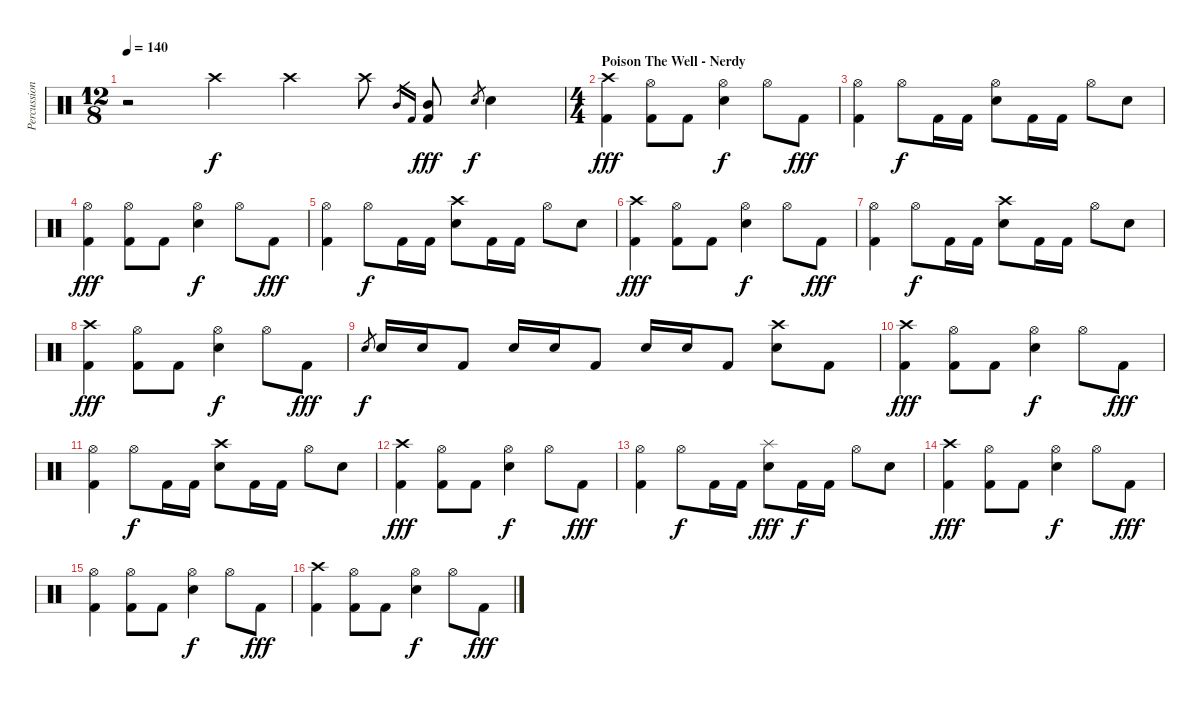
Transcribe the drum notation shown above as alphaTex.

\track ("Percussion" "Percussion") {instrument percussion}
\staff {score}
\articulation defaults
\ts (12 8)
\tempo 140
\clef neutral
\ks c
r.2{dy f} "Crash high (hit)".4 "Crash high (hit)".4 "Crash high (hit)".8 "Mid Tom (hit)".16{gr} "Kick (hit) 2".16{gr} ("Mid Tom (hit)" "Kick (hit) 2").8{dy fff} "Electric Snare (hit)".8{gr dy f} "Electric Snare (hit)".4 |
\ts (4 4)
\section ("" "Poison The Well - Nerdy")
("Crash high (hit)" "Kick (hit) 2").4{dy fff} ("Hi-Hat (open)" "Kick (hit) 2").8 "Kick (hit) 2".8 ("Hi-Hat (open)" "Electric Snare (hit)").4{dy f} "Hi-Hat (open)".8 "Kick (hit) 2".8{dy fff} |
("Hi-Hat (open)" "Kick (hit) 2").4 "Hi-Hat (open)".8{dy f} "Kick (hit) 2".16 "Kick (hit) 2".16 ("Hi-Hat (open)" "Electric Snare (hit)").8 "Kick (hit) 2".16 "Kick (hit) 2".16 "Hi-Hat (open)".8 "Electric Snare (hit)".8 |
("Hi-Hat (open)" "Kick (hit) 2").4{dy fff} ("Hi-Hat (open)" "Kick (hit) 2").8 "Kick (hit) 2".8 ("Hi-Hat (open)" "Electric Snare (hit)").4{dy f} "Hi-Hat (open)".8 "Kick (hit) 2".8{dy fff} |
("Hi-Hat (open)" "Kick (hit) 2").4 "Hi-Hat (open)".8{dy f} "Kick (hit) 2".16 "Kick (hit) 2".16 ("Crash high (hit)" "Electric Snare (hit)").8 "Kick (hit) 2".16 "Kick (hit) 2".16 "Hi-Hat (open)".8 "Electric Snare (hit)".8 |
("Crash high (hit)" "Kick (hit) 2").4{dy fff} ("Hi-Hat (open)" "Kick (hit) 2").8 "Kick (hit) 2".8 ("Hi-Hat (open)" "Electric Snare (hit)").4{dy f} "Hi-Hat (open)".8 "Kick (hit) 2".8{dy fff} |
("Hi-Hat (open)" "Kick (hit) 2").4 "Hi-Hat (open)".8{dy f} "Kick (hit) 2".16 "Kick (hit) 2".16 ("Crash high (hit)" "Electric Snare (hit)").8 "Kick (hit) 2".16 "Kick (hit) 2".16 "Hi-Hat (open)".8 "Electric Snare (hit)".8 |
("Crash high (hit)" "Kick (hit) 2").4{dy fff} ("Hi-Hat (open)" "Kick (hit) 2").8 "Kick (hit) 2".8 ("Hi-Hat (open)" "Electric Snare (hit)").4{dy f} "Hi-Hat (open)".8 "Kick (hit) 2".8{dy fff} |
"Electric Snare (hit)".8{gr dy f} "Electric Snare (hit)".16 "Electric Snare (hit)".16 "Kick (hit) 2".8 "Electric Snare (hit)".16 "Electric Snare (hit)".16 "Kick (hit) 2".8 "Electric Snare (hit)".16 "Electric Snare (hit)".16 "Kick (hit) 2".8 ("Crash high (hit)" "Electric Snare (hit)").8 "Kick (hit) 2".8 |
("Crash high (hit)" "Kick (hit) 2").4{dy fff} ("Hi-Hat (open)" "Kick (hit) 2").8 "Kick (hit) 2".8 ("Hi-Hat (open)" "Electric Snare (hit)").4{dy f} "Hi-Hat (open)".8 "Kick (hit) 2".8{dy fff} |
("Hi-Hat (open)" "Kick (hit) 2").4 "Hi-Hat (open)".8{dy f} "Kick (hit) 2".16 "Kick (hit) 2".16 ("Crash high (hit)" "Electric Snare (hit)").8 "Kick (hit) 2".16 "Kick (hit) 2".16 "Hi-Hat (open)".8 "Electric Snare (hit)".8 |
("Crash high (hit)" "Kick (hit) 2").4{dy fff} ("Hi-Hat (open)" "Kick (hit) 2").8 "Kick (hit) 2".8 ("Hi-Hat (open)" "Electric Snare (hit)").4{dy f} "Hi-Hat (open)".8 "Kick (hit) 2".8{dy fff} |
("Hi-Hat (open)" "Kick (hit) 2").4 "Hi-Hat (open)".8{dy f} "Kick (hit) 2".16 "Kick (hit) 2".16 ("Electric Snare (hit)" "Splash (hit)").8{dy fff} "Kick (hit) 2".16{dy f} "Kick (hit) 2".16 "Hi-Hat (open)".8 "Electric Snare (hit)".8 |
("Crash high (hit)" "Kick (hit) 2").4{dy fff} ("Hi-Hat (open)" "Kick (hit) 2").8 "Kick (hit) 2".8 ("Hi-Hat (open)" "Electric Snare (hit)").4{dy f} "Hi-Hat (open)".8 "Kick (hit) 2".8{dy fff} |
("Hi-Hat (open)" "Kick (hit) 2").4 ("Hi-Hat (open)" "Kick (hit) 2").8 "Kick (hit) 2".8 ("Hi-Hat (open)" "Electric Snare (hit)").4{dy f} "Hi-Hat (open)".8 "Kick (hit) 2".8{dy fff} |
("Crash high (hit)" "Kick (hit) 2").4 ("Hi-Hat (open)" "Kick (hit) 2").8 "Kick (hit) 2".8 ("Hi-Hat (open)" "Electric Snare (hit)").4{dy f} "Hi-Hat (open)".8 "Kick (hit) 2".8{dy fff}
